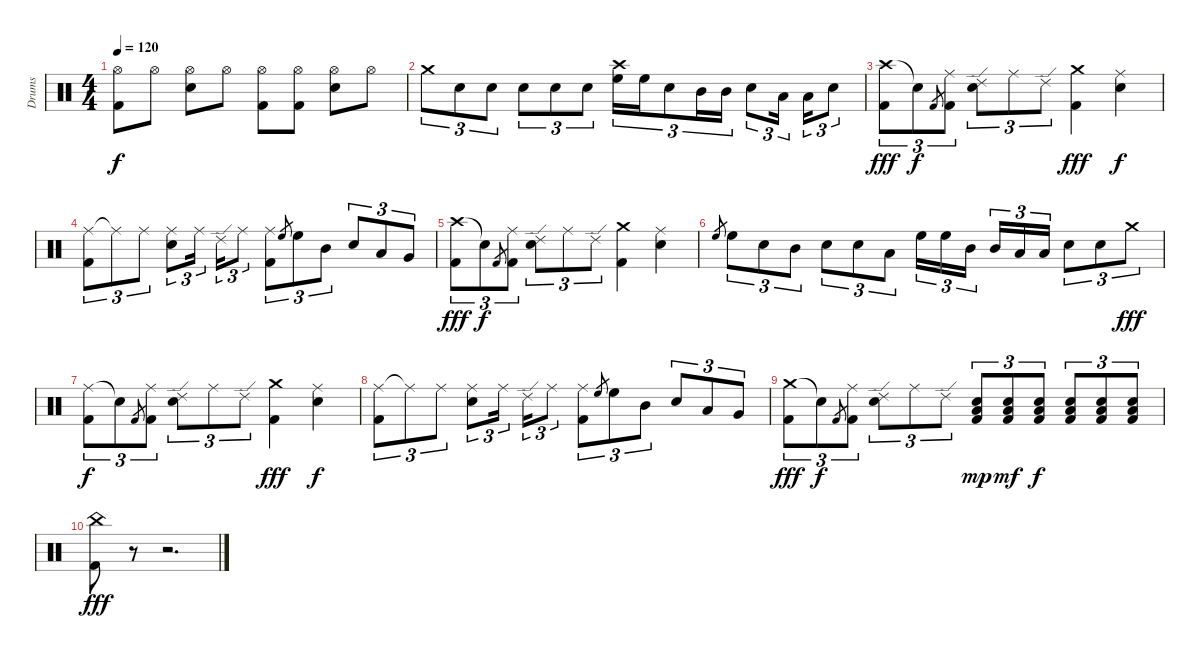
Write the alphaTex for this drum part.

\track ("Drums" "Drums") {instrument percussion}
\staff {score}
\articulation defaults
\ts (4 4)
\tempo 120
\clef neutral
\ks c
("Hi-Hat (open)" "Kick (hit) 2").8{dy f} "Hi-Hat (open)".8 ("Hi-Hat (open)" "Electric Snare (hit)").8 "Hi-Hat (open)".8 ("Hi-Hat (open)" "Kick (hit) 2").8 ("Hi-Hat (open)" "Kick (hit) 2").8 ("Hi-Hat (open)" "Electric Snare (hit)").8 "Hi-Hat (open)".8 |
"Crash medium (hit)".8{tu (3 2)} "Electric Snare (hit)".8{tu (3 2)} "Electric Snare (hit)".8{tu (3 2)} "Electric Snare (hit)".8{tu (3 2)} "Electric Snare (hit)".8{tu (3 2)} "Electric Snare (hit)".8{tu (3 2)} ("Crash high (hit)" "High Floor Tom (hit)").16{tu (3 2)} "High Floor Tom (hit)".16{tu (3 2)} "Electric Snare (hit)".8{tu (3 2)} "Mid Tom (hit)".16{tu (3 2)} "Mid Tom (hit)".16{tu (3 2)} "Electric Snare (hit)".8{tu (3 2)} "Low Tom (hit)".16{tu (3 2)} "Low Tom (hit)".16{tu (3 2)} "Electric Snare (hit)".8{tu (3 2)} |
("Crash high (hit)" "Kick (hit) 2").8{tu (3 2) dy fff} "Snare (hit)"{t}.8{tu (3 2) dy f} "Kick (hit) 2".8{gr} ("Ride (middle)" "Kick (hit) 2").8{tu (3 2)} ("Ride (edge) 2" "Electric Snare (hit)").8{tu (3 2)} "Ride (middle)".8{tu (3 2)} "Ride (edge) 2".8{tu (3 2)} ("Crash medium (hit)" "Kick (hit) 2").4{dy fff} ("Ride (middle)" "Electric Snare (hit)").4{dy f} |
("Ride (middle)" "Kick (hit) 2").8{tu (3 2)} "Ride (middle)"{t}.8{tu (3 2)} "Ride (middle)".8{tu (3 2)} ("Ride (middle)" "Electric Snare (hit)").8{tu (3 2)} "Ride (middle)".16{tu (3 2)} "Ride (edge) 2".16{tu (3 2)} "Ride (middle)".8{tu (3 2)} ("Ride (middle)" "Kick (hit) 2").8{tu (3 2)} "High Floor Tom (hit)".8{gr} "High Floor Tom (hit)".8{tu (3 2)} "Mid Tom (hit)".8{tu (3 2)} "Electric Snare (hit)".8{tu (3 2)} "Low Tom (hit)".8{tu (3 2)} "Very Low Tom (hit)".8{tu (3 2)} |
("Crash high (hit)" "Kick (hit) 2").8{tu (3 2) dy fff} "Snare (hit)"{t}.8{tu (3 2) dy f} "Kick (hit) 2".8{gr} ("Ride (middle)" "Kick (hit) 2").8{tu (3 2)} ("Ride (edge) 2" "Electric Snare (hit)").8{tu (3 2)} "Ride (middle)".8{tu (3 2)} "Ride (edge) 2".8{tu (3 2)} ("Crash medium (hit)" "Kick (hit) 2").4 ("Ride (middle)" "Electric Snare (hit)").4 |
"High Floor Tom (hit)".8{gr} "High Floor Tom (hit)".8{tu (3 2)} "Electric Snare (hit)".8{tu (3 2)} "Mid Tom (hit)".8{tu (3 2)} "Electric Snare (hit)".8{tu (3 2)} "Electric Snare (hit)".8{tu (3 2)} "Low Tom (hit)".8{tu (3 2)} "High Floor Tom (hit)".16{tu (3 2)} "High Floor Tom (hit)".16{tu (3 2)} "Mid Tom (hit)".16{tu (3 2)} "Mid Tom (hit)".16{tu (3 2)} "Low Tom (hit)".16{tu (3 2)} "Low Tom (hit)".16{tu (3 2)} "Electric Snare (hit)".8{tu (3 2)} "Electric Snare (hit)".8{tu (3 2)} "Crash medium (hit)".8{tu (3 2) dy fff} |
("Ride (middle)" "Kick (hit) 2").8{tu (3 2) dy f} "Snare (hit)"{t}.8{tu (3 2)} "Kick (hit) 2".8{gr} ("Ride (middle)" "Kick (hit) 2").8{tu (3 2)} ("Ride (edge) 2" "Electric Snare (hit)").8{tu (3 2)} "Ride (middle)".8{tu (3 2)} "Ride (edge) 2".8{tu (3 2)} ("Crash medium (hit)" "Kick (hit) 2").4{dy fff} ("Ride (middle)" "Electric Snare (hit)").4{dy f} |
("Ride (middle)" "Kick (hit) 2").8{tu (3 2)} "Ride (middle)"{t}.8{tu (3 2)} "Ride (middle)".8{tu (3 2)} ("Ride (middle)" "Electric Snare (hit)").8{tu (3 2)} "Ride (middle)".16{tu (3 2)} "Ride (edge) 2".16{tu (3 2)} "Ride (middle)".8{tu (3 2)} ("Ride (middle)" "Kick (hit) 2").8{tu (3 2)} "High Floor Tom (hit)".8{gr} "High Floor Tom (hit)".8{tu (3 2)} "Mid Tom (hit)".8{tu (3 2)} "Electric Snare (hit)".8{tu (3 2)} "Low Tom (hit)".8{tu (3 2)} "Very Low Tom (hit)".8{tu (3 2)} |
("Crash medium (hit)" "Kick (hit) 2").8{tu (3 2) dy fff} "Snare (hit)"{t}.8{tu (3 2) dy f} "Kick (hit) 2".8{gr} ("Ride (middle)" "Kick (hit) 2").8{tu (3 2)} ("Ride (edge) 2" "Electric Snare (hit)").8{tu (3 2)} "Ride (middle)".8{tu (3 2)} "Ride (edge) 2".8{tu (3 2)} ("Electric Snare (hit)" "Low Tom (hit)" "Kick (hit) 2").8{tu (3 2) dy mp} ("Electric Snare (hit)" "Low Tom (hit)" "Kick (hit) 2").8{tu (3 2) dy mf} ("Electric Snare (hit)" "Low Tom (hit)" "Kick (hit) 2").8{tu (3 2) dy f} ("Electric Snare (hit)" "Low Tom (hit)" "Kick (hit) 2").8{tu (3 2)} ("Electric Snare (hit)" "Low Tom (hit)" "Kick (hit) 2").8{tu (3 2)} ("Electric Snare (hit)" "Low Tom (hit)" "Kick (hit) 2").8{tu (3 2)} |
("China (hit)" "Kick (hit) 2").8{dy fff} r.8 r.2{d}
